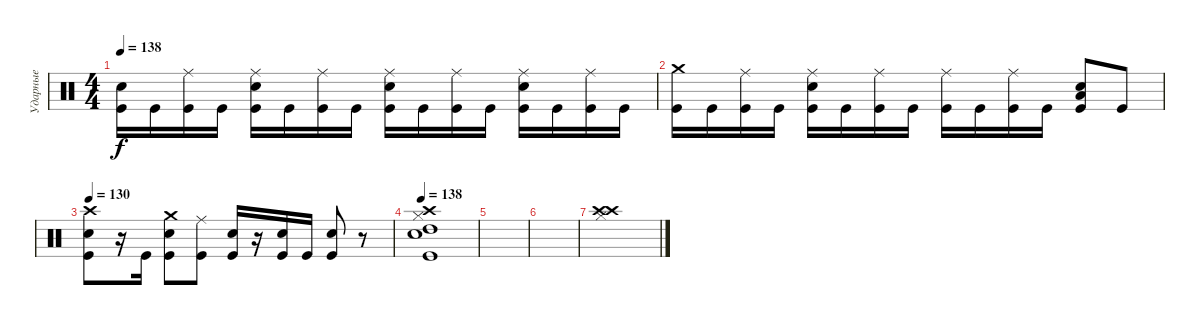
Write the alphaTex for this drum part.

\track ("Ударные" "Ударные") {instrument percussion}
\staff {score}
\articulation defaults
\ts (4 4)
\tempo 138
\clef neutral
\ks c
("Electric Snare (hit)" "Kick (hit)").16{dy f} "Kick (hit)".16 ("Ride (middle)" "Kick (hit)").16 "Kick (hit)".16 ("Ride (middle)" "Electric Snare (hit)" "Kick (hit)").16 "Kick (hit)".16 ("Ride (middle)" "Kick (hit)").16 "Kick (hit)".16 ("Ride (middle)" "Electric Snare (hit)" "Kick (hit)").16 "Kick (hit)".16 ("Ride (middle)" "Kick (hit)").16 "Kick (hit)".16 ("Ride (middle)" "Electric Snare (hit)" "Kick (hit)").16 "Kick (hit)".16 ("Ride (middle)" "Kick (hit)").16 "Kick (hit)".16 |
("Crash medium (hit)" "Kick (hit)").16 "Kick (hit)".16 ("Ride (middle)" "Kick (hit)").16 "Kick (hit)".16 ("Ride (middle)" "Electric Snare (hit)" "Kick (hit)").16 "Kick (hit)".16 ("Ride (middle)" "Kick (hit)").16 "Kick (hit)".16 ("Ride (middle)" "Kick (hit)").16 "Kick (hit)".16 ("Ride (middle)" "Kick (hit)").16 "Kick (hit)".16 ("Low Tom (hit)" "Electric Snare (hit)" "Kick (hit)").8 "Kick (hit)".8 |
\tempo 130
("Crash high (hit)" "Electric Snare (hit)" "Kick (hit)").8 r.16 "Kick (hit)".16 ("Crash medium (hit)" "Electric Snare (hit)" "Kick (hit)").8 ("Ride (middle)" "Kick (hit)").8 ("Electric Snare (hit)" "Kick (hit)").16 r.16 ("Electric Snare (hit)" "Kick (hit)").16 "Kick (hit)".16 ("Electric Snare (hit)" "Kick (hit)").8 r.8 |
\tempo 138
("Crash high (hit)" "Hi-Hat (closed)" "Electric Snare (hit)" "High Tom (hit)" "Kick (hit)").1 |
|
|
("Crash high (hit)" "Crash high (hit)" "Hi-Hat (closed)").1
